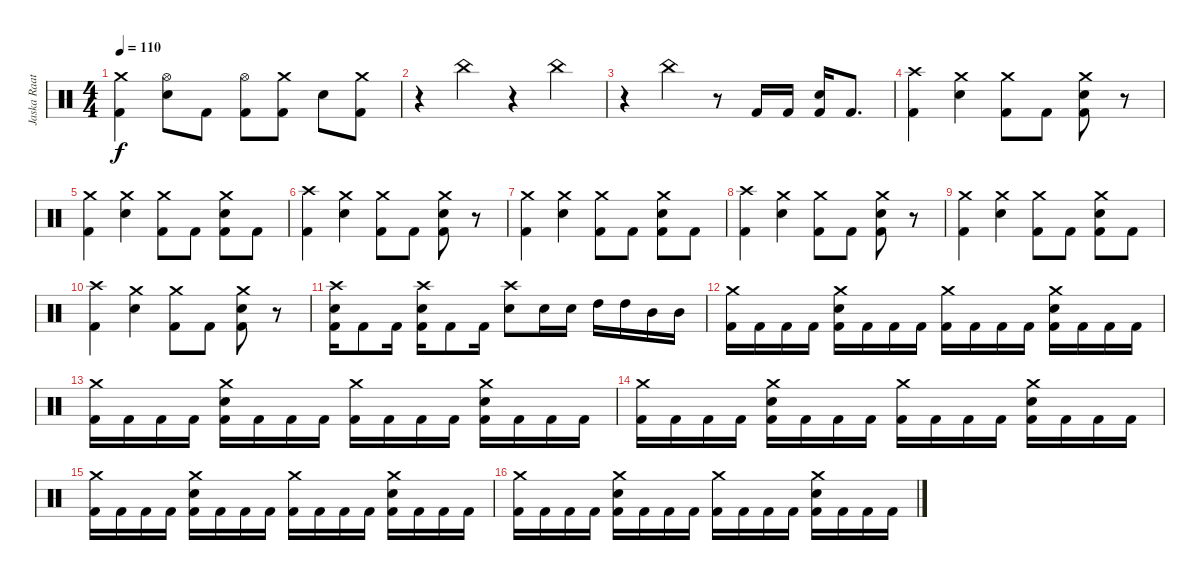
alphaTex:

\track ("Jaska Raatikainen" "Jaska Raat") {instrument percussion}
\staff {score}
\articulation defaults
\ts (4 4)
\tempo 110
\clef neutral
\ks c
("Crash medium (hit)" "Kick (hit) 2").4{dy f} ("Electric Snare (hit)" "Hi-Hat (open)").8 "Kick (hit) 2".8 ("Hi-Hat (open)" "Kick (hit) 2").8 ("Crash medium (hit)" "Kick (hit) 2").8 "Snare (hit) 2".8 ("Crash medium (hit)" "Kick (hit) 2").8 |
r.4 "China (hit)".4 r.4 "China (hit)".4 |
r.4 "China (hit)".4 r.8 "Kick (hit) 2".16 "Kick (hit) 2".16 ("Kick (hit) 2" "Electric Snare (hit)").16 "Kick (hit) 2".8{d} |
("Crash high (hit)" "Kick (hit) 2").4 ("Crash medium (hit)" "Snare (hit) 2").4 ("Crash medium (hit)" "Kick (hit) 2").8 "Kick (hit) 2".8 ("Crash medium (hit)" "Snare (hit) 2" "Kick (hit) 2").8 r.8 |
("Crash medium (hit)" "Kick (hit) 2").4 ("Crash medium (hit)" "Snare (hit) 2").4 ("Crash medium (hit)" "Kick (hit) 2").8 "Kick (hit) 2".8 ("Crash medium (hit)" "Snare (hit) 2" "Kick (hit) 2").8 "Kick (hit) 2".8 |
("Crash high (hit)" "Kick (hit) 2").4 ("Crash medium (hit)" "Snare (hit) 2").4 ("Crash medium (hit)" "Kick (hit) 2").8 "Kick (hit) 2".8 ("Crash medium (hit)" "Snare (hit) 2" "Kick (hit) 2").8 r.8 |
("Crash medium (hit)" "Kick (hit) 2").4 ("Crash medium (hit)" "Snare (hit) 2").4 ("Crash medium (hit)" "Kick (hit) 2").8 "Kick (hit) 2".8 ("Crash medium (hit)" "Snare (hit) 2" "Kick (hit) 2").8 "Kick (hit) 2".8 |
("Crash high (hit)" "Kick (hit) 2").4 ("Crash medium (hit)" "Snare (hit) 2").4 ("Crash medium (hit)" "Kick (hit) 2").8 "Kick (hit) 2".8 ("Crash medium (hit)" "Snare (hit) 2" "Kick (hit) 2").8 r.8 |
("Crash medium (hit)" "Kick (hit) 2").4 ("Crash medium (hit)" "Snare (hit) 2").4 ("Crash medium (hit)" "Kick (hit) 2").8 "Kick (hit) 2".8 ("Crash medium (hit)" "Snare (hit) 2" "Kick (hit) 2").8 "Kick (hit) 2".8 |
("Crash high (hit)" "Kick (hit) 2").4 ("Crash medium (hit)" "Snare (hit) 2").4 ("Crash medium (hit)" "Kick (hit) 2").8 "Kick (hit) 2".8 ("Crash medium (hit)" "Snare (hit) 2" "Kick (hit) 2").8 r.8 |
("Crash high (hit)" "Snare (hit) 2" "Kick (hit) 2").16 "Kick (hit) 2".8 "Kick (hit) 2".16 ("Crash high (hit)" "Snare (hit) 2" "Kick (hit) 2").16 "Kick (hit) 2".8 "Kick (hit) 2".16 ("Crash high (hit)" "Snare (hit) 2").8 "Snare (hit) 2".16 "Snare (hit) 2".16 "High Tom (hit)".16 "High Tom (hit)".16 "Mid Tom (hit)".16 "Mid Tom (hit)".16 |
("Kick (hit) 2" "Crash medium (hit)").16 "Kick (hit) 2".16 "Kick (hit) 2".16 "Kick (hit) 2".16 ("Kick (hit) 2" "Crash medium (hit)" "Electric Snare (hit)").16 "Kick (hit) 2".16 "Kick (hit) 2".16 "Kick (hit) 2".16 ("Kick (hit) 2" "Crash medium (hit)").16 "Kick (hit) 2".16 "Kick (hit) 2".16 "Kick (hit) 2".16 ("Kick (hit) 2" "Crash medium (hit)" "Electric Snare (hit)").16 "Kick (hit) 2".16 "Kick (hit) 2".16 "Kick (hit) 2".16 |
("Kick (hit) 2" "Crash medium (hit)").16 "Kick (hit) 2".16 "Kick (hit) 2".16 "Kick (hit) 2".16 ("Kick (hit) 2" "Crash medium (hit)" "Electric Snare (hit)").16 "Kick (hit) 2".16 "Kick (hit) 2".16 "Kick (hit) 2".16 ("Kick (hit) 2" "Crash medium (hit)").16 "Kick (hit) 2".16 "Kick (hit) 2".16 "Kick (hit) 2".16 ("Kick (hit) 2" "Crash medium (hit)" "Electric Snare (hit)").16 "Kick (hit) 2".16 "Kick (hit) 2".16 "Kick (hit) 2".16 |
("Kick (hit) 2" "Crash medium (hit)").16 "Kick (hit) 2".16 "Kick (hit) 2".16 "Kick (hit) 2".16 ("Kick (hit) 2" "Crash medium (hit)" "Electric Snare (hit)").16 "Kick (hit) 2".16 "Kick (hit) 2".16 "Kick (hit) 2".16 ("Kick (hit) 2" "Crash medium (hit)").16 "Kick (hit) 2".16 "Kick (hit) 2".16 "Kick (hit) 2".16 ("Kick (hit) 2" "Crash medium (hit)" "Electric Snare (hit)").16 "Kick (hit) 2".16 "Kick (hit) 2".16 "Kick (hit) 2".16 |
("Kick (hit) 2" "Crash medium (hit)").16 "Kick (hit) 2".16 "Kick (hit) 2".16 "Kick (hit) 2".16 ("Kick (hit) 2" "Crash medium (hit)" "Electric Snare (hit)").16 "Kick (hit) 2".16 "Kick (hit) 2".16 "Kick (hit) 2".16 ("Kick (hit) 2" "Crash medium (hit)").16 "Kick (hit) 2".16 "Kick (hit) 2".16 "Kick (hit) 2".16 ("Kick (hit) 2" "Crash medium (hit)" "Electric Snare (hit)").16 "Kick (hit) 2".16 "Kick (hit) 2".16 "Kick (hit) 2".16 |
("Kick (hit) 2" "Crash medium (hit)").16 "Kick (hit) 2".16 "Kick (hit) 2".16 "Kick (hit) 2".16 ("Kick (hit) 2" "Crash medium (hit)" "Electric Snare (hit)").16 "Kick (hit) 2".16 "Kick (hit) 2".16 "Kick (hit) 2".16 ("Kick (hit) 2" "Crash medium (hit)").16 "Kick (hit) 2".16 "Kick (hit) 2".16 "Kick (hit) 2".16 ("Kick (hit) 2" "Crash medium (hit)" "Electric Snare (hit)").16 "Kick (hit) 2".16 "Kick (hit) 2".16 "Kick (hit) 2".16
